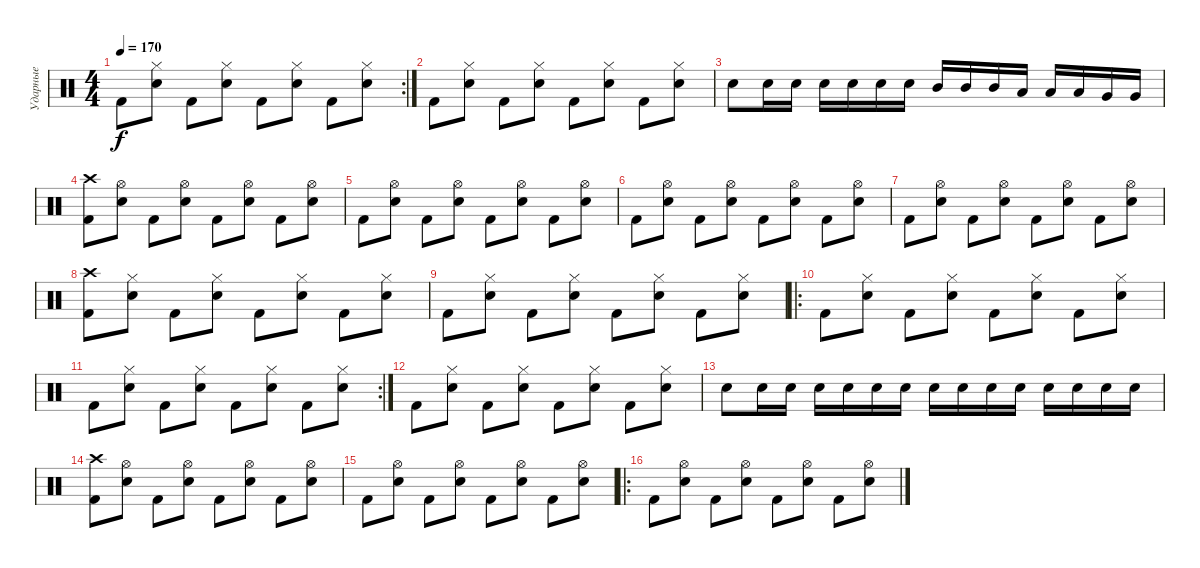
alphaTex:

\track ("Ударные" "Ударные") {instrument percussion}
\staff {score}
\articulation defaults
\rc 2
\ts (4 4)
\tempo 170
\clef neutral
\ks c "Kick (hit) 2".8{dy f}
("Hi-Hat (closed)" "Electric Snare (hit)").8 "Kick (hit) 2".8 ("Hi-Hat (closed)" "Electric Snare (hit)").8 "Kick (hit) 2".8 ("Hi-Hat (closed)" "Electric Snare (hit)").8 "Kick (hit) 2".8 ("Hi-Hat (closed)" "Electric Snare (hit)").8 |
"Kick (hit) 2".8 ("Hi-Hat (closed)" "Electric Snare (hit)").8 "Kick (hit) 2".8 ("Hi-Hat (closed)" "Electric Snare (hit)").8 "Kick (hit) 2".8 ("Hi-Hat (closed)" "Electric Snare (hit)").8 "Kick (hit) 2".8 ("Hi-Hat (closed)" "Electric Snare (hit)").8 |
"Electric Snare (hit)".8 "Electric Snare (hit)".16 "Electric Snare (hit)".16 "Electric Snare (hit)".16 "Electric Snare (hit)".16 "Electric Snare (hit)".16 "Electric Snare (hit)".16 "Mid Tom (hit)".16 "Mid Tom (hit)".16 "Mid Tom (hit)".16 "Low Tom (hit)".16 "Low Tom (hit)".16 "Low Tom (hit)".16 "Very Low Tom (hit)".16 "Very Low Tom (hit)".16 |
("Kick (hit) 2" "Crash high (hit)").8 ("Hi-Hat (open)" "Electric Snare (hit)").8 "Kick (hit) 2".8 ("Hi-Hat (open)" "Electric Snare (hit)").8 "Kick (hit) 2".8 ("Hi-Hat (open)" "Electric Snare (hit)").8 "Kick (hit) 2".8 ("Hi-Hat (open)" "Electric Snare (hit)").8 |
"Kick (hit) 2".8 ("Hi-Hat (open)" "Electric Snare (hit)").8 "Kick (hit) 2".8 ("Hi-Hat (open)" "Electric Snare (hit)").8 "Kick (hit) 2".8 ("Hi-Hat (open)" "Electric Snare (hit)").8 "Kick (hit) 2".8 ("Hi-Hat (open)" "Electric Snare (hit)").8 |
"Kick (hit) 2".8 ("Hi-Hat (open)" "Electric Snare (hit)").8 "Kick (hit) 2".8 ("Hi-Hat (open)" "Electric Snare (hit)").8 "Kick (hit) 2".8 ("Hi-Hat (open)" "Electric Snare (hit)").8 "Kick (hit) 2".8 ("Hi-Hat (open)" "Electric Snare (hit)").8 |
"Kick (hit) 2".8 ("Hi-Hat (open)" "Electric Snare (hit)").8 "Kick (hit) 2".8 ("Hi-Hat (open)" "Electric Snare (hit)").8 "Kick (hit) 2".8 ("Hi-Hat (open)" "Electric Snare (hit)").8 "Kick (hit) 2".8 ("Hi-Hat (open)" "Electric Snare (hit)").8 |
("Kick (hit) 2" "Crash high (hit)").8 ("Hi-Hat (closed)" "Electric Snare (hit)").8 "Kick (hit) 2".8 ("Hi-Hat (closed)" "Electric Snare (hit)").8 "Kick (hit) 2".8 ("Hi-Hat (closed)" "Electric Snare (hit)").8 "Kick (hit) 2".8 ("Hi-Hat (closed)" "Electric Snare (hit)").8 |
"Kick (hit) 2".8 ("Hi-Hat (closed)" "Electric Snare (hit)").8 "Kick (hit) 2".8 ("Hi-Hat (closed)" "Electric Snare (hit)").8 "Kick (hit) 2".8 ("Hi-Hat (closed)" "Electric Snare (hit)").8 "Kick (hit) 2".8 ("Hi-Hat (closed)" "Electric Snare (hit)").8 |
\ro "Kick (hit) 2".8
("Hi-Hat (closed)" "Electric Snare (hit)").8 "Kick (hit) 2".8 ("Hi-Hat (closed)" "Electric Snare (hit)").8 "Kick (hit) 2".8 ("Hi-Hat (closed)" "Electric Snare (hit)").8 "Kick (hit) 2".8 ("Hi-Hat (closed)" "Electric Snare (hit)").8 |
\rc 2 "Kick (hit) 2".8
("Hi-Hat (closed)" "Electric Snare (hit)").8 "Kick (hit) 2".8 ("Hi-Hat (closed)" "Electric Snare (hit)").8 "Kick (hit) 2".8 ("Hi-Hat (closed)" "Electric Snare (hit)").8 "Kick (hit) 2".8 ("Hi-Hat (closed)" "Electric Snare (hit)").8 |
"Kick (hit) 2".8 ("Hi-Hat (closed)" "Electric Snare (hit)").8 "Kick (hit) 2".8 ("Hi-Hat (closed)" "Electric Snare (hit)").8 "Kick (hit) 2".8 ("Hi-Hat (closed)" "Electric Snare (hit)").8 "Kick (hit) 2".8 ("Hi-Hat (closed)" "Electric Snare (hit)").8 |
"Electric Snare (hit)".8 "Electric Snare (hit)".16 "Electric Snare (hit)".16 "Electric Snare (hit)".16 "Electric Snare (hit)".16 "Electric Snare (hit)".16 "Electric Snare (hit)".16 "Snare (hit) 2".16 "Snare (hit) 2".16 "Snare (hit) 2".16 "Snare (hit) 2".16 "Snare (hit) 2".16 "Snare (hit) 2".16 "Snare (hit) 2".16 "Snare (hit) 2".16 |
("Kick (hit) 2" "Crash high (hit)").8 ("Hi-Hat (open)" "Electric Snare (hit)").8 "Kick (hit) 2".8 ("Hi-Hat (open)" "Electric Snare (hit)").8 "Kick (hit) 2".8 ("Hi-Hat (open)" "Electric Snare (hit)").8 "Kick (hit) 2".8 ("Hi-Hat (open)" "Electric Snare (hit)").8 |
"Kick (hit) 2".8 ("Hi-Hat (open)" "Electric Snare (hit)").8 "Kick (hit) 2".8 ("Hi-Hat (open)" "Electric Snare (hit)").8 "Kick (hit) 2".8 ("Hi-Hat (open)" "Electric Snare (hit)").8 "Kick (hit) 2".8 ("Hi-Hat (open)" "Electric Snare (hit)").8 |
\ro "Kick (hit) 2".8
("Hi-Hat (open)" "Electric Snare (hit)").8 "Kick (hit) 2".8 ("Hi-Hat (open)" "Electric Snare (hit)").8 "Kick (hit) 2".8 ("Hi-Hat (open)" "Electric Snare (hit)").8 "Kick (hit) 2".8 ("Hi-Hat (open)" "Electric Snare (hit)").8
